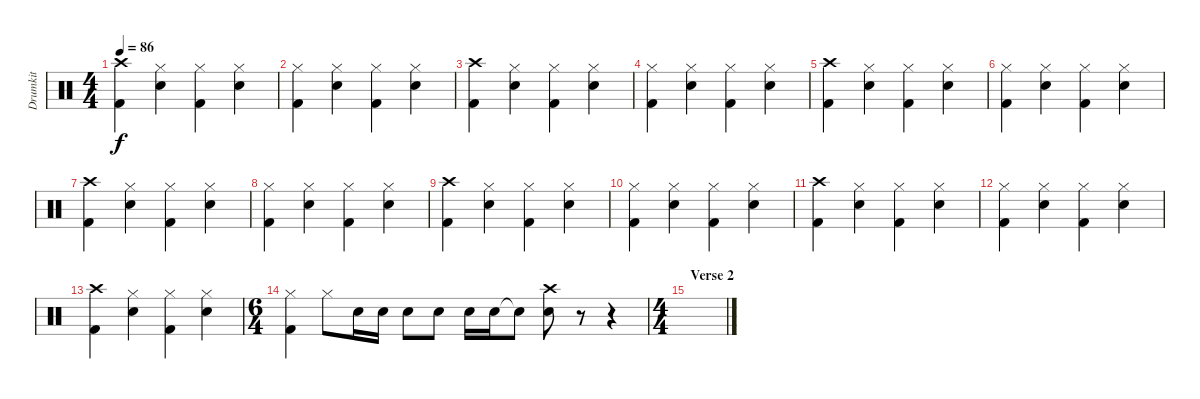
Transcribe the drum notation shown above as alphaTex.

\track ("Drumkit" "Drumkit") {instrument percussion}
\staff {score}
\articulation defaults
\ts (4 4)
\tempo 86
\clef neutral
\ks c
("Kick (hit) 2" "Crash high (hit)").4{dy f} ("Snare (hit) 2" "Hi-Hat (closed)").4 ("Kick (hit) 2" "Hi-Hat (closed)").4 ("Snare (hit) 2" "Hi-Hat (closed)").4 |
("Kick (hit) 2" "Hi-Hat (closed)").4 ("Snare (hit) 2" "Hi-Hat (closed)").4 ("Kick (hit) 2" "Hi-Hat (closed)").4 ("Snare (hit) 2" "Hi-Hat (closed)").4 |
("Kick (hit) 2" "Crash high (hit)").4 ("Snare (hit) 2" "Hi-Hat (closed)").4 ("Kick (hit) 2" "Hi-Hat (closed)").4 ("Snare (hit) 2" "Hi-Hat (closed)").4 |
("Kick (hit) 2" "Hi-Hat (closed)").4 ("Snare (hit) 2" "Hi-Hat (closed)").4 ("Kick (hit) 2" "Hi-Hat (closed)").4 ("Snare (hit) 2" "Hi-Hat (closed)").4 |
("Kick (hit) 2" "Crash high (hit)").4 ("Snare (hit) 2" "Hi-Hat (closed)").4 ("Kick (hit) 2" "Hi-Hat (closed)").4 ("Snare (hit) 2" "Hi-Hat (closed)").4 |
("Kick (hit) 2" "Hi-Hat (closed)").4 ("Snare (hit) 2" "Hi-Hat (closed)").4 ("Kick (hit) 2" "Hi-Hat (closed)").4 ("Snare (hit) 2" "Hi-Hat (closed)").4 |
("Kick (hit) 2" "Crash high (hit)").4 ("Snare (hit) 2" "Hi-Hat (closed)").4 ("Kick (hit) 2" "Hi-Hat (closed)").4 ("Snare (hit) 2" "Hi-Hat (closed)").4 |
("Kick (hit) 2" "Hi-Hat (closed)").4 ("Snare (hit) 2" "Hi-Hat (closed)").4 ("Kick (hit) 2" "Hi-Hat (closed)").4 ("Snare (hit) 2" "Hi-Hat (closed)").4 |
("Kick (hit) 2" "Crash high (hit)").4 ("Snare (hit) 2" "Hi-Hat (closed)").4 ("Kick (hit) 2" "Hi-Hat (closed)").4 ("Snare (hit) 2" "Hi-Hat (closed)").4 |
("Kick (hit) 2" "Hi-Hat (closed)").4 ("Snare (hit) 2" "Hi-Hat (closed)").4 ("Kick (hit) 2" "Hi-Hat (closed)").4 ("Snare (hit) 2" "Hi-Hat (closed)").4 |
("Kick (hit) 2" "Crash high (hit)").4 ("Snare (hit) 2" "Hi-Hat (closed)").4 ("Kick (hit) 2" "Hi-Hat (closed)").4 ("Snare (hit) 2" "Hi-Hat (closed)").4 |
("Kick (hit) 2" "Hi-Hat (closed)").4 ("Snare (hit) 2" "Hi-Hat (closed)").4 ("Kick (hit) 2" "Hi-Hat (closed)").4 ("Snare (hit) 2" "Hi-Hat (closed)").4 |
("Kick (hit) 2" "Crash high (hit)").4 ("Snare (hit) 2" "Hi-Hat (closed)").4 ("Kick (hit) 2" "Hi-Hat (closed)").4 ("Snare (hit) 2" "Hi-Hat (closed)").4 |
\ts (6 4)
("Kick (hit) 2" "Hi-Hat (closed)").4 "Hi-Hat (closed)".8 "Snare (hit) 2".16 "Snare (hit) 2".16 "Snare (hit) 2".8 "Snare (hit) 2".8 "Snare (hit) 2".16 "Snare (hit) 2".16 "Snare (hit) 2"{t}.8 ("Snare (hit) 2" "Crash high (hit)").8 r.8 r.4 |
\ts (4 4)
\section ("" "Verse 2")
